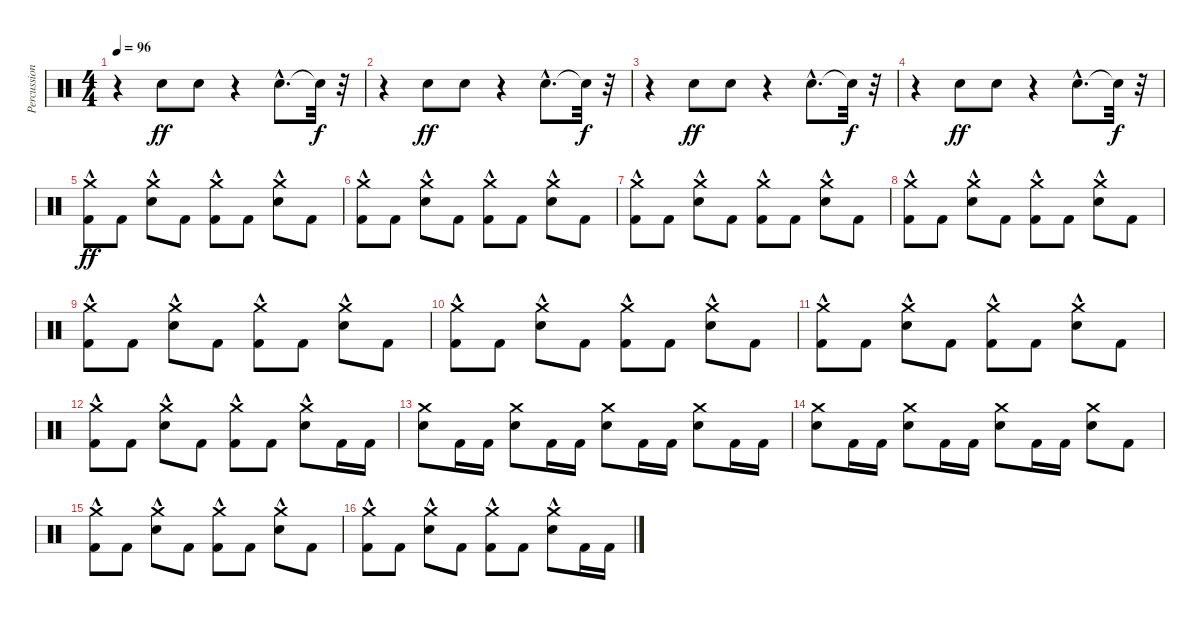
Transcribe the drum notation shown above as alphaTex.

\track ("Percussion 1" "Percussion") {instrument percussion}
\staff {score}
\articulation defaults
\ts (4 4)
\tempo 96
\clef neutral
\ks c
r.4{dy f} "Electric Snare (hit)".8{dy ff} "Electric Snare (hit)".8 r.4 "Electric Snare (hit)"{hac}.8{d} "Snare (hit)"{t}.32{dy f} r.32 |
r.4 "Electric Snare (hit)".8{dy ff} "Electric Snare (hit)".8 r.4 "Electric Snare (hit)"{hac}.8{d} "Snare (hit)"{t}.32{dy f} r.32 |
r.4 "Electric Snare (hit)".8{dy ff} "Electric Snare (hit)".8 r.4 "Electric Snare (hit)"{hac}.8{d} "Snare (hit)"{t}.32{dy f} r.32 |
r.4 "Electric Snare (hit)".8{dy ff} "Electric Snare (hit)".8 r.4 "Electric Snare (hit)"{hac}.8{d} "Snare (hit)"{t}.32{dy f} r.32 |
("Kick (hit) 2" "Crash medium (hit)"{hac}).8{dy ff} "Kick (hit) 2".8 ("Electric Snare (hit)" "Crash medium (hit)"{hac}).8 "Kick (hit) 2".8 ("Kick (hit) 2" "Crash medium (hit)"{hac}).8 "Kick (hit) 2".8 ("Electric Snare (hit)" "Crash medium (hit)"{hac}).8 "Kick (hit) 2".8 |
("Kick (hit) 2" "Crash medium (hit)"{hac}).8 "Kick (hit) 2".8 ("Electric Snare (hit)" "Crash medium (hit)"{hac}).8 "Kick (hit) 2".8 ("Kick (hit) 2" "Crash medium (hit)"{hac}).8 "Kick (hit) 2".8 ("Electric Snare (hit)" "Crash medium (hit)"{hac}).8 "Kick (hit) 2".8 |
("Kick (hit) 2" "Crash medium (hit)"{hac}).8 "Kick (hit) 2".8 ("Electric Snare (hit)" "Crash medium (hit)"{hac}).8 "Kick (hit) 2".8 ("Kick (hit) 2" "Crash medium (hit)"{hac}).8 "Kick (hit) 2".8 ("Electric Snare (hit)" "Crash medium (hit)"{hac}).8 "Kick (hit) 2".8 |
("Kick (hit) 2" "Crash medium (hit)"{hac}).8 "Kick (hit) 2".8 ("Electric Snare (hit)" "Crash medium (hit)"{hac}).8 "Kick (hit) 2".8 ("Kick (hit) 2" "Crash medium (hit)"{hac}).8 "Kick (hit) 2".8 ("Electric Snare (hit)" "Crash medium (hit)"{hac}).8 "Kick (hit) 2".8 |
("Kick (hit) 2" "Crash medium (hit)"{hac}).8 "Kick (hit) 2".8 ("Electric Snare (hit)" "Crash medium (hit)"{hac}).8 "Kick (hit) 2".8 ("Kick (hit) 2" "Crash medium (hit)"{hac}).8 "Kick (hit) 2".8 ("Electric Snare (hit)" "Crash medium (hit)"{hac}).8 "Kick (hit) 2".8 |
("Kick (hit) 2" "Crash medium (hit)"{hac}).8 "Kick (hit) 2".8 ("Electric Snare (hit)" "Crash medium (hit)"{hac}).8 "Kick (hit) 2".8 ("Kick (hit) 2" "Crash medium (hit)"{hac}).8 "Kick (hit) 2".8 ("Electric Snare (hit)" "Crash medium (hit)"{hac}).8 "Kick (hit) 2".8 |
("Kick (hit) 2" "Crash medium (hit)"{hac}).8 "Kick (hit) 2".8 ("Electric Snare (hit)" "Crash medium (hit)"{hac}).8 "Kick (hit) 2".8 ("Kick (hit) 2" "Crash medium (hit)"{hac}).8 "Kick (hit) 2".8 ("Electric Snare (hit)" "Crash medium (hit)"{hac}).8 "Kick (hit) 2".8 |
("Kick (hit) 2" "Crash medium (hit)"{hac}).8 "Kick (hit) 2".8 ("Electric Snare (hit)" "Crash medium (hit)"{hac}).8 "Kick (hit) 2".8 ("Kick (hit) 2" "Crash medium (hit)"{hac}).8 "Kick (hit) 2".8 ("Electric Snare (hit)" "Crash medium (hit)"{hac}).8 "Kick (hit) 2".16 "Kick (hit) 2".16 |
("Electric Snare (hit)" "Crash medium (hit)").8 "Kick (hit) 2".16 "Kick (hit) 2".16 ("Electric Snare (hit)" "Crash medium (hit)").8 "Kick (hit) 2".16 "Kick (hit) 2".16 ("Electric Snare (hit)" "Crash medium (hit)").8 "Kick (hit) 2".16 "Kick (hit) 2".16 ("Electric Snare (hit)" "Crash medium (hit)").8 "Kick (hit) 2".16 "Kick (hit) 2".16 |
("Electric Snare (hit)" "Crash medium (hit)").8 "Kick (hit) 2".16 "Kick (hit) 2".16 ("Electric Snare (hit)" "Crash medium (hit)").8 "Kick (hit) 2".16 "Kick (hit) 2".16 ("Electric Snare (hit)" "Crash medium (hit)").8 "Kick (hit) 2".16 "Kick (hit) 2".16 ("Electric Snare (hit)" "Crash medium (hit)").8 "Kick (hit) 2".8 |
("Kick (hit) 2" "Crash medium (hit)"{hac}).8 "Kick (hit) 2".8 ("Electric Snare (hit)" "Crash medium (hit)"{hac}).8 "Kick (hit) 2".8 ("Kick (hit) 2" "Crash medium (hit)"{hac}).8 "Kick (hit) 2".8 ("Electric Snare (hit)" "Crash medium (hit)"{hac}).8 "Kick (hit) 2".8 |
("Kick (hit) 2" "Crash medium (hit)"{hac}).8 "Kick (hit) 2".8 ("Electric Snare (hit)" "Crash medium (hit)"{hac}).8 "Kick (hit) 2".8 ("Kick (hit) 2" "Crash medium (hit)"{hac}).8 "Kick (hit) 2".8 ("Electric Snare (hit)" "Crash medium (hit)"{hac}).8 "Kick (hit) 2".16 "Kick (hit) 2".16
